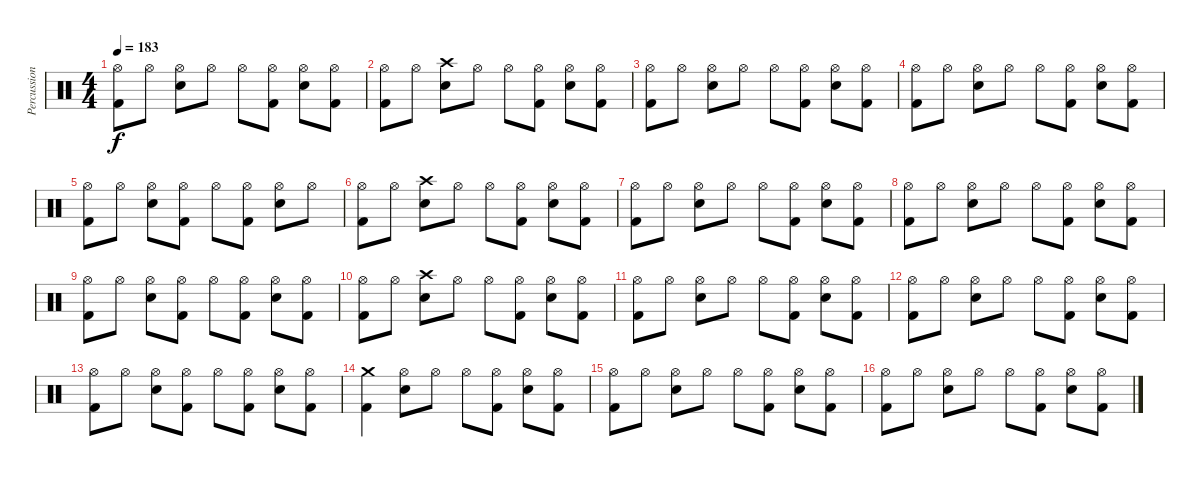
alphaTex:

\track ("Percussion" "Percussion") {instrument percussion}
\staff {score}
\articulation defaults
\ts (4 4)
\tempo 183
\clef neutral
\ks c
("Hi-Hat (open)" "Kick (hit) 2").8{dy f} "Hi-Hat (open)".8 ("Hi-Hat (open)" "Snare (hit) 2").8 "Hi-Hat (open)".8 "Hi-Hat (open)".8 ("Hi-Hat (open)" "Kick (hit) 2").8 ("Hi-Hat (open)" "Snare (hit) 2").8 ("Hi-Hat (open)" "Kick (hit) 2").8 |
("Hi-Hat (open)" "Kick (hit) 2").8 "Hi-Hat (open)".8 ("Crash high (hit)" "Snare (hit) 2").8 "Hi-Hat (open)".8 "Hi-Hat (open)".8 ("Hi-Hat (open)" "Kick (hit) 2").8 ("Hi-Hat (open)" "Snare (hit) 2").8 ("Hi-Hat (open)" "Kick (hit) 2").8 |
("Hi-Hat (open)" "Kick (hit) 2").8 "Hi-Hat (open)".8 ("Hi-Hat (open)" "Snare (hit) 2").8 "Hi-Hat (open)".8 "Hi-Hat (open)".8 ("Hi-Hat (open)" "Kick (hit) 2").8 ("Hi-Hat (open)" "Snare (hit) 2").8 ("Hi-Hat (open)" "Kick (hit) 2").8 |
("Hi-Hat (open)" "Kick (hit) 2").8 "Hi-Hat (open)".8 ("Hi-Hat (open)" "Snare (hit) 2").8 "Hi-Hat (open)".8 "Hi-Hat (open)".8 ("Hi-Hat (open)" "Kick (hit) 2").8 ("Hi-Hat (open)" "Snare (hit) 2").8 ("Hi-Hat (open)" "Kick (hit) 2").8 |
("Hi-Hat (open)" "Kick (hit) 2").8 "Hi-Hat (open)".8 ("Hi-Hat (open)" "Snare (hit) 2").8 ("Hi-Hat (open)" "Kick (hit) 2").8 "Hi-Hat (open)".8 ("Hi-Hat (open)" "Kick (hit) 2").8 ("Hi-Hat (open)" "Snare (hit) 2").8 "Hi-Hat (open)".8 |
("Hi-Hat (open)" "Kick (hit) 2").8 "Hi-Hat (open)".8 ("Crash high (hit)" "Snare (hit) 2").8 "Hi-Hat (open)".8 "Hi-Hat (open)".8 ("Hi-Hat (open)" "Kick (hit) 2").8 ("Hi-Hat (open)" "Snare (hit) 2").8 ("Hi-Hat (open)" "Kick (hit) 2").8 |
("Hi-Hat (open)" "Kick (hit) 2").8 "Hi-Hat (open)".8 ("Hi-Hat (open)" "Snare (hit) 2").8 "Hi-Hat (open)".8 "Hi-Hat (open)".8 ("Hi-Hat (open)" "Kick (hit) 2").8 ("Hi-Hat (open)" "Snare (hit) 2").8 ("Hi-Hat (open)" "Kick (hit) 2").8 |
("Hi-Hat (open)" "Kick (hit) 2").8 "Hi-Hat (open)".8 ("Hi-Hat (open)" "Snare (hit) 2").8 "Hi-Hat (open)".8 "Hi-Hat (open)".8 ("Hi-Hat (open)" "Kick (hit) 2").8 ("Hi-Hat (open)" "Snare (hit) 2").8 ("Hi-Hat (open)" "Kick (hit) 2").8 |
("Hi-Hat (open)" "Kick (hit) 2").8 "Hi-Hat (open)".8 ("Hi-Hat (open)" "Snare (hit) 2").8 ("Hi-Hat (open)" "Kick (hit) 2").8 "Hi-Hat (open)".8 ("Hi-Hat (open)" "Kick (hit) 2").8 ("Hi-Hat (open)" "Snare (hit) 2").8 ("Hi-Hat (open)" "Kick (hit) 2").8 |
("Hi-Hat (open)" "Kick (hit) 2").8 "Hi-Hat (open)".8 ("Crash high (hit)" "Snare (hit) 2").8 "Hi-Hat (open)".8 "Hi-Hat (open)".8 ("Hi-Hat (open)" "Kick (hit) 2").8 ("Hi-Hat (open)" "Snare (hit) 2").8 ("Hi-Hat (open)" "Kick (hit) 2").8 |
("Hi-Hat (open)" "Kick (hit) 2").8 "Hi-Hat (open)".8 ("Hi-Hat (open)" "Snare (hit) 2").8 "Hi-Hat (open)".8 "Hi-Hat (open)".8 ("Hi-Hat (open)" "Kick (hit) 2").8 ("Hi-Hat (open)" "Snare (hit) 2").8 ("Hi-Hat (open)" "Kick (hit) 2").8 |
("Hi-Hat (open)" "Kick (hit) 2").8 "Hi-Hat (open)".8 ("Hi-Hat (open)" "Snare (hit) 2").8 "Hi-Hat (open)".8 "Hi-Hat (open)".8 ("Hi-Hat (open)" "Kick (hit) 2").8 ("Hi-Hat (open)" "Snare (hit) 2").8 ("Hi-Hat (open)" "Kick (hit) 2").8 |
("Hi-Hat (open)" "Kick (hit) 2").8 "Hi-Hat (open)".8 ("Hi-Hat (open)" "Snare (hit) 2").8 ("Hi-Hat (open)" "Kick (hit) 2").8 "Hi-Hat (open)".8 ("Hi-Hat (open)" "Kick (hit) 2").8 ("Hi-Hat (open)" "Snare (hit) 2").8 ("Hi-Hat (open)" "Kick (hit) 2").8 |
("Crash medium (hit)" "Kick (hit) 2").4 ("Hi-Hat (open)" "Snare (hit) 2").8 "Hi-Hat (open)".8 "Hi-Hat (open)".8 ("Hi-Hat (open)" "Kick (hit) 2").8 ("Hi-Hat (open)" "Snare (hit) 2").8 ("Hi-Hat (open)" "Kick (hit) 2").8 |
("Hi-Hat (open)" "Kick (hit) 2").8 "Hi-Hat (open)".8 ("Hi-Hat (open)" "Snare (hit) 2").8 "Hi-Hat (open)".8 "Hi-Hat (open)".8 ("Hi-Hat (open)" "Kick (hit) 2").8 ("Hi-Hat (open)" "Snare (hit) 2").8 ("Hi-Hat (open)" "Kick (hit) 2").8 |
("Hi-Hat (open)" "Kick (hit) 2").8 "Hi-Hat (open)".8 ("Hi-Hat (open)" "Snare (hit) 2").8 "Hi-Hat (open)".8 "Hi-Hat (open)".8 ("Hi-Hat (open)" "Kick (hit) 2").8 ("Hi-Hat (open)" "Snare (hit) 2").8 ("Hi-Hat (open)" "Kick (hit) 2").8
